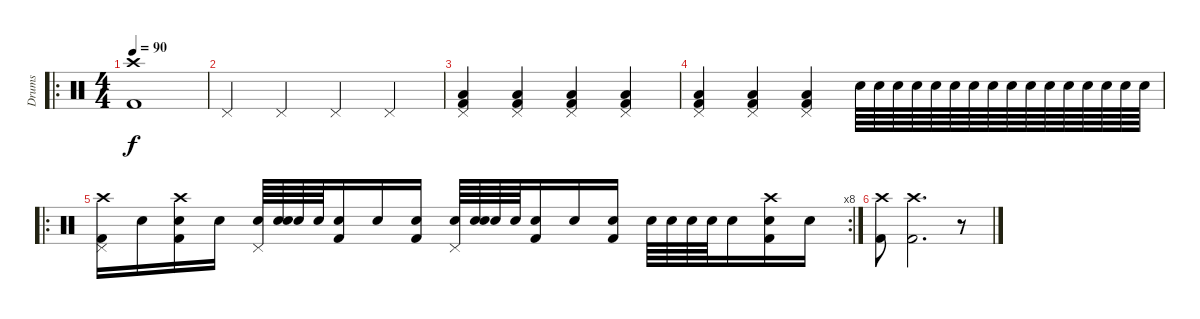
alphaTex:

\track ("Drums" "Drums") {instrument percussion}
\staff {score}
\articulation defaults
\ro
\ts (4 4)
\tempo 90
\clef neutral
\ks c
("Crash high (hit)" "Kick (hit) 2").1{dy f} |
"Pedal Hi-Hat (hit)".4 "Pedal Hi-Hat (hit)".4 "Pedal Hi-Hat (hit)".4 "Pedal Hi-Hat (hit)".4 |
("Pedal Hi-Hat (hit)" "Low Tom (hit)" "Kick (hit) 2").4 ("Pedal Hi-Hat (hit)" "Low Tom (hit)" "Kick (hit) 2").4 ("Pedal Hi-Hat (hit)" "Low Tom (hit)" "Kick (hit) 2").4 ("Pedal Hi-Hat (hit)" "Low Tom (hit)" "Kick (hit) 2").4 |
("Pedal Hi-Hat (hit)" "Low Tom (hit)" "Kick (hit) 2").4 ("Pedal Hi-Hat (hit)" "Low Tom (hit)" "Kick (hit) 2").4 ("Pedal Hi-Hat (hit)" "Low Tom (hit)" "Kick (hit) 2").4 "Snare (hit) 2".64 "Snare (hit) 2".64 "Snare (hit)".64 "Snare (hit)".64 "Snare (hit)".64 "Snare (hit)".64 "Snare (hit)".64 "Snare (hit)".64 "Snare (hit) 2".64 "Snare (hit) 2".64 "Snare (hit)".64 "Snare (hit)".64 "Snare (hit)".64 "Snare (hit)".64 "Snare (hit)".64 "Snare (hit)".64 |
\ro
\rc 8
("Crash high (hit)" "Kick (hit) 2" "Pedal Hi-Hat (hit)").16 "Snare (hit)".16 ("Crash high (hit)" "Kick (hit) 2" "Snare (hit)").16 "Snare (hit)".16 ("Snare (hit) 2" "Pedal Hi-Hat (hit)").64 ("Snare (hit) 2" "Snare (hit)").64 "Snare (hit)".64 "Snare (hit)".64 ("Kick (hit) 2" "Snare (hit)").16 "Snare (hit)".16 ("Kick (hit) 2" "Snare (hit)").16 ("Snare (hit) 2" "Pedal Hi-Hat (hit)").64 ("Snare (hit) 2" "Snare (hit)").64 "Snare (hit)".64 "Snare (hit)".64 ("Kick (hit) 2" "Snare (hit)").16 "Snare (hit)".16 ("Kick (hit) 2" "Snare (hit)").16 "Snare (hit) 2".64 "Snare (hit) 2".64 "Snare (hit)".64 "Snare (hit)".64 "Snare (hit)".16 ("Crash high (hit)" "Kick (hit) 2" "Snare (hit)").16 "Snare (hit)".16 |
("Crash high (hit)" "Kick (hit) 2").8 ("Crash high (hit)" "Kick (hit) 2").2{d} r.8
